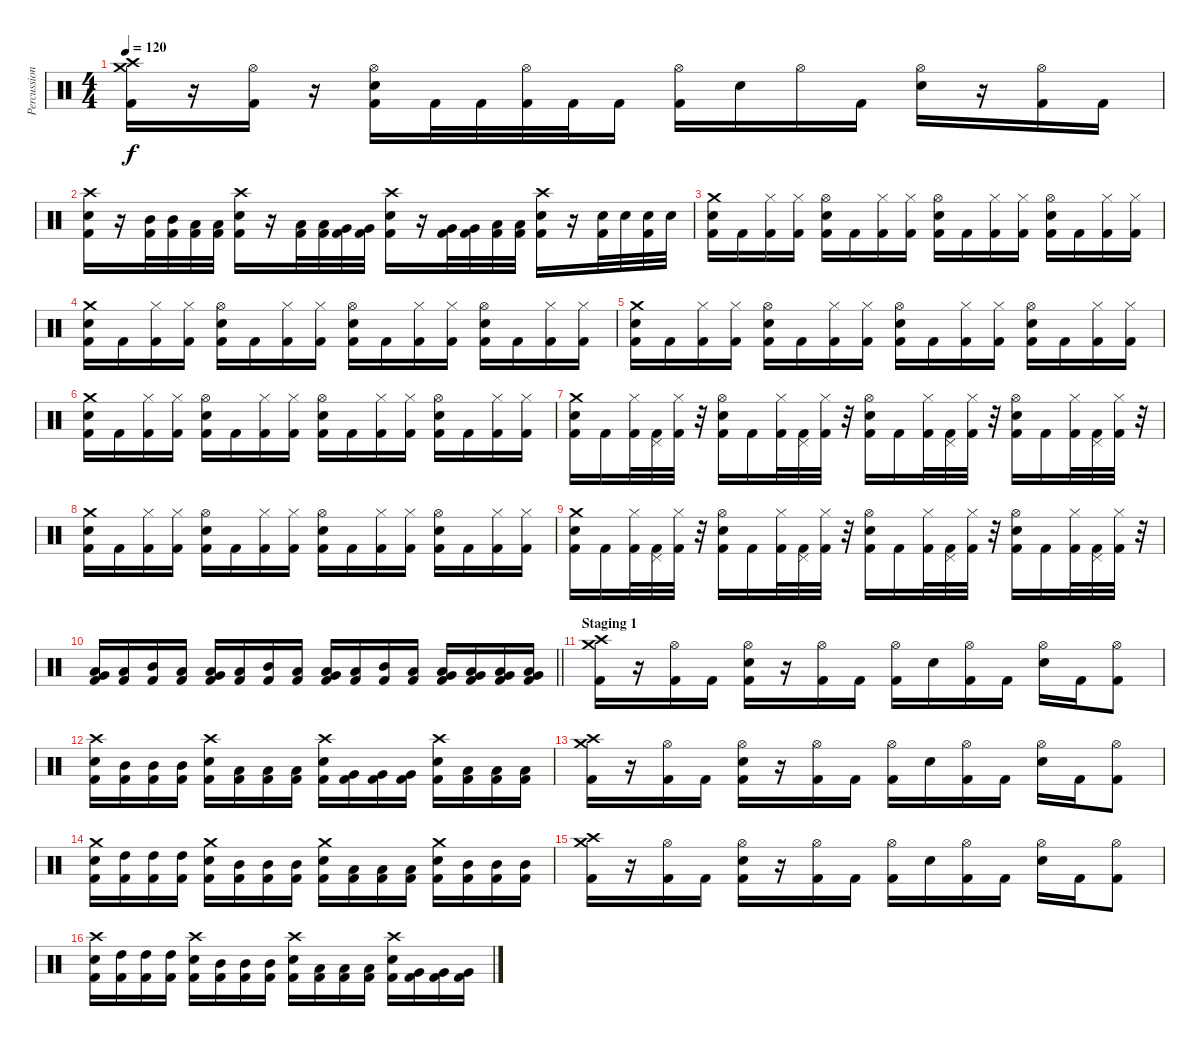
\track ("Percussion" "Percussion") {instrument percussion}
\staff {score}
\articulation defaults
\ts (4 4)
\tempo 120
\clef neutral
\ks c
("Crash medium (hit)" "Crash high (hit)" "Kick (hit) 2").16{dy f} r.16 ("Hi-Hat (open)" "Kick (hit) 2").16 r.16 ("Hi-Hat (open)" "Electric Snare (hit)" "Kick (hit) 2").16 "Kick (hit) 2".32 "Kick (hit) 2".32 ("Hi-Hat (open)" "Kick (hit) 2").32 "Kick (hit) 2".32 "Kick (hit) 2".16 ("Hi-Hat (open)" "Kick (hit) 2").16 "Electric Snare (hit)".16 "Hi-Hat (open)".16 "Kick (hit) 2".16 ("Hi-Hat (open)" "Electric Snare (hit)").16 r.16 ("Hi-Hat (open)" "Kick (hit) 2").16 "Kick (hit) 2".16 |
("Crash high (hit)" "Electric Snare (hit)" "Kick (hit) 2").16 r.16 ("Mid Tom (hit)" "Kick (hit) 2").32 ("Mid Tom (hit)" "Kick (hit) 2").32 ("Low Tom (hit)" "Kick (hit) 2").32 ("Low Tom (hit)" "Kick (hit) 2").32 ("Crash high (hit)" "Electric Snare (hit)" "Kick (hit) 2").16 r.16 ("Low Tom (hit)" "Kick (hit) 2").32 ("Low Tom (hit)" "Kick (hit) 2").32 ("Very Low Tom (hit)" "Kick (hit) 2").32 ("Very Low Tom (hit)" "Kick (hit) 2").32 ("Crash high (hit)" "Electric Snare (hit)" "Kick (hit) 2").16 r.16 ("Very Low Tom (hit)" "Kick (hit) 2").32 ("Very Low Tom (hit)" "Kick (hit) 2").32 ("Low Floor Tom (hit)" "Kick (hit) 2").32 ("Low Floor Tom (hit)" "Kick (hit) 2").32 ("Crash high (hit)" "Electric Snare (hit)" "Kick (hit) 2").16 r.16 ("Electric Snare (hit)" "Kick (hit) 2").32 "Electric Snare (hit)".32 ("Electric Snare (hit)" "Kick (hit) 2").32 "Electric Snare (hit)".32 |
("Crash medium (hit)" "Electric Snare (hit)" "Kick (hit) 2").16 "Kick (hit) 2".16 ("Hi-Hat (closed)" "Kick (hit) 2").16 ("Hi-Hat (closed)" "Kick (hit) 2").16 ("Hi-Hat (open)" "Electric Snare (hit)" "Kick (hit) 2").16 "Kick (hit) 2".16 ("Hi-Hat (closed)" "Kick (hit) 2").16 ("Hi-Hat (closed)" "Kick (hit) 2").16 ("Hi-Hat (open)" "Electric Snare (hit)" "Kick (hit) 2").16 "Kick (hit) 2".16 ("Hi-Hat (closed)" "Kick (hit) 2").16 ("Hi-Hat (closed)" "Kick (hit) 2").16 ("Hi-Hat (open)" "Electric Snare (hit)" "Kick (hit) 2").16 "Kick (hit) 2".16 ("Hi-Hat (closed)" "Kick (hit) 2").16 ("Hi-Hat (closed)" "Kick (hit) 2").16 |
("Crash medium (hit)" "Electric Snare (hit)" "Kick (hit) 2").16 "Kick (hit) 2".16 ("Hi-Hat (closed)" "Kick (hit) 2").16 ("Hi-Hat (closed)" "Kick (hit) 2").16 ("Hi-Hat (open)" "Electric Snare (hit)" "Kick (hit) 2").16 "Kick (hit) 2".16 ("Hi-Hat (closed)" "Kick (hit) 2").16 ("Hi-Hat (closed)" "Kick (hit) 2").16 ("Hi-Hat (open)" "Electric Snare (hit)" "Kick (hit) 2").16 "Kick (hit) 2".16 ("Hi-Hat (closed)" "Kick (hit) 2").16 ("Hi-Hat (closed)" "Kick (hit) 2").16 ("Hi-Hat (open)" "Electric Snare (hit)" "Kick (hit) 2").16 "Kick (hit) 2".16 ("Hi-Hat (closed)" "Kick (hit) 2").16 ("Hi-Hat (closed)" "Kick (hit) 2").16 |
("Crash medium (hit)" "Electric Snare (hit)" "Kick (hit) 2").16 "Kick (hit) 2".16 ("Hi-Hat (closed)" "Kick (hit) 2").16 ("Hi-Hat (closed)" "Kick (hit) 2").16 ("Hi-Hat (open)" "Electric Snare (hit)" "Kick (hit) 2").16 "Kick (hit) 2".16 ("Hi-Hat (closed)" "Kick (hit) 2").16 ("Hi-Hat (closed)" "Kick (hit) 2").16 ("Hi-Hat (open)" "Electric Snare (hit)" "Kick (hit) 2").16 "Kick (hit) 2".16 ("Hi-Hat (closed)" "Kick (hit) 2").16 ("Hi-Hat (closed)" "Kick (hit) 2").16 ("Hi-Hat (open)" "Electric Snare (hit)" "Kick (hit) 2").16 "Kick (hit) 2".16 ("Hi-Hat (closed)" "Kick (hit) 2").16 ("Hi-Hat (closed)" "Kick (hit) 2").16 |
("Crash medium (hit)" "Electric Snare (hit)" "Kick (hit) 2").16 "Kick (hit) 2".16 ("Hi-Hat (closed)" "Kick (hit) 2").16 ("Hi-Hat (closed)" "Kick (hit) 2").16 ("Hi-Hat (open)" "Electric Snare (hit)" "Kick (hit) 2").16 "Kick (hit) 2".16 ("Hi-Hat (closed)" "Kick (hit) 2").16 ("Hi-Hat (closed)" "Kick (hit) 2").16 ("Hi-Hat (open)" "Electric Snare (hit)" "Kick (hit) 2").16 "Kick (hit) 2".16 ("Hi-Hat (closed)" "Kick (hit) 2").16 ("Hi-Hat (closed)" "Kick (hit) 2").16 ("Hi-Hat (open)" "Electric Snare (hit)" "Kick (hit) 2").16 "Kick (hit) 2".16 ("Hi-Hat (closed)" "Kick (hit) 2").16 ("Hi-Hat (closed)" "Kick (hit) 2").16 |
("Crash medium (hit)" "Electric Snare (hit)" "Kick (hit) 2").16 "Kick (hit) 2".16 ("Hi-Hat (closed)" "Kick (hit) 2").32 ("Pedal Hi-Hat (hit)" "Kick (hit) 2").32 ("Hi-Hat (closed)" "Kick (hit) 2").32 r.32 ("Hi-Hat (open)" "Electric Snare (hit)" "Kick (hit) 2").16 "Kick (hit) 2".16 ("Hi-Hat (closed)" "Kick (hit) 2").32 ("Pedal Hi-Hat (hit)" "Kick (hit) 2").32 ("Hi-Hat (closed)" "Kick (hit) 2").32 r.32 ("Hi-Hat (open)" "Electric Snare (hit)" "Kick (hit) 2").16 "Kick (hit) 2".16 ("Hi-Hat (closed)" "Kick (hit) 2").32 ("Pedal Hi-Hat (hit)" "Kick (hit) 2").32 ("Hi-Hat (closed)" "Kick (hit) 2").32 r.32 ("Hi-Hat (open)" "Electric Snare (hit)" "Kick (hit) 2").16 "Kick (hit) 2".16 ("Hi-Hat (closed)" "Kick (hit) 2").32 ("Pedal Hi-Hat (hit)" "Kick (hit) 2").32 ("Hi-Hat (closed)" "Kick (hit) 2").32 r.32 |
("Crash medium (hit)" "Electric Snare (hit)" "Kick (hit) 2").16 "Kick (hit) 2".16 ("Hi-Hat (closed)" "Kick (hit) 2").16 ("Hi-Hat (closed)" "Kick (hit) 2").16 ("Hi-Hat (open)" "Electric Snare (hit)" "Kick (hit) 2").16 "Kick (hit) 2".16 ("Hi-Hat (closed)" "Kick (hit) 2").16 ("Hi-Hat (closed)" "Kick (hit) 2").16 ("Hi-Hat (open)" "Electric Snare (hit)" "Kick (hit) 2").16 "Kick (hit) 2".16 ("Hi-Hat (closed)" "Kick (hit) 2").16 ("Hi-Hat (closed)" "Kick (hit) 2").16 ("Hi-Hat (open)" "Electric Snare (hit)" "Kick (hit) 2").16 "Kick (hit) 2".16 ("Hi-Hat (closed)" "Kick (hit) 2").16 ("Hi-Hat (closed)" "Kick (hit) 2").16 |
("Crash medium (hit)" "Electric Snare (hit)" "Kick (hit) 2").16 "Kick (hit) 2".16 ("Hi-Hat (closed)" "Kick (hit) 2").32 ("Pedal Hi-Hat (hit)" "Kick (hit) 2").32 ("Hi-Hat (closed)" "Kick (hit) 2").32 r.32 ("Hi-Hat (open)" "Electric Snare (hit)" "Kick (hit) 2").16 "Kick (hit) 2".16 ("Hi-Hat (closed)" "Kick (hit) 2").32 ("Pedal Hi-Hat (hit)" "Kick (hit) 2").32 ("Hi-Hat (closed)" "Kick (hit) 2").32 r.32 ("Hi-Hat (open)" "Electric Snare (hit)" "Kick (hit) 2").16 "Kick (hit) 2".16 ("Hi-Hat (closed)" "Kick (hit) 2").32 ("Pedal Hi-Hat (hit)" "Kick (hit) 2").32 ("Hi-Hat (closed)" "Kick (hit) 2").32 r.32 ("Hi-Hat (open)" "Electric Snare (hit)" "Kick (hit) 2").16 "Kick (hit) 2".16 ("Hi-Hat (closed)" "Kick (hit) 2").32 ("Pedal Hi-Hat (hit)" "Kick (hit) 2").32 ("Hi-Hat (closed)" "Kick (hit) 2").32 r.32 |
\barLineRight lightlight
("Very Low Tom (hit)" "Low Floor Tom (hit)" "Kick (hit) 2").16 ("Low Tom (hit)" "Kick (hit) 2").16 ("Mid Tom (hit)" "Kick (hit) 2").16 ("Low Tom (hit)" "Kick (hit) 2").16 ("Very Low Tom (hit)" "Low Floor Tom (hit)" "Kick (hit) 2").16 ("Low Tom (hit)" "Kick (hit) 2").16 ("Mid Tom (hit)" "Kick (hit) 2").16 ("Low Tom (hit)" "Kick (hit) 2").16 ("Very Low Tom (hit)" "Low Floor Tom (hit)" "Kick (hit) 2").16 ("Low Tom (hit)" "Kick (hit) 2").16 ("Mid Tom (hit)" "Kick (hit) 2").16 ("Low Tom (hit)" "Kick (hit) 2").16 ("Very Low Tom (hit)" "Low Floor Tom (hit)" "Kick (hit) 2").16 ("Very Low Tom (hit)" "Low Floor Tom (hit)" "Kick (hit) 2").16 ("Very Low Tom (hit)" "Low Floor Tom (hit)" "Kick (hit) 2").16 ("Very Low Tom (hit)" "Low Floor Tom (hit)" "Kick (hit) 2").16 |
\section ("" "Staging 1")
("Crash high (hit)" "Crash medium (hit)" "Kick (hit) 2").16 r.16 ("Hi-Hat (open)" "Kick (hit) 2").16 "Kick (hit) 2".16 ("Hi-Hat (open)" "Electric Snare (hit)" "Kick (hit) 2").16 r.16 ("Hi-Hat (open)" "Kick (hit) 2").16 "Kick (hit) 2".16 ("Hi-Hat (open)" "Kick (hit) 2").16 "Electric Snare (hit)".16 ("Hi-Hat (open)" "Kick (hit) 2").16 "Kick (hit) 2".16 ("Hi-Hat (open)" "Electric Snare (hit)").16 "Kick (hit) 2".16 ("Hi-Hat (open)" "Kick (hit) 2").8 |
("Crash high (hit)" "Electric Snare (hit)" "Kick (hit) 2").16 ("Mid Tom (hit)" "Kick (hit) 2").16 ("Mid Tom (hit)" "Kick (hit) 2").16 ("Mid Tom (hit)" "Kick (hit) 2").16 ("Crash high (hit)" "Electric Snare (hit)" "Kick (hit) 2").16 ("Low Tom (hit)" "Kick (hit) 2").16 ("Low Tom (hit)" "Kick (hit) 2").16 ("Low Tom (hit)" "Kick (hit) 2").16 ("Crash high (hit)" "Electric Snare (hit)" "Kick (hit) 2").16 ("Very Low Tom (hit)" "Kick (hit) 2").16 ("Very Low Tom (hit)" "Kick (hit) 2").16 ("Very Low Tom (hit)" "Kick (hit) 2").16 ("Crash high (hit)" "Electric Snare (hit)" "Kick (hit) 2").16 ("Low Tom (hit)" "Kick (hit) 2").16 ("Low Tom (hit)" "Kick (hit) 2").16 ("Low Tom (hit)" "Kick (hit) 2").16 |
("Crash medium (hit)" "Crash high (hit)" "Kick (hit) 2").16 r.16 ("Hi-Hat (open)" "Kick (hit) 2").16 "Kick (hit) 2".16 ("Hi-Hat (open)" "Electric Snare (hit)" "Kick (hit) 2").16 r.16 ("Hi-Hat (open)" "Kick (hit) 2").16 "Kick (hit) 2".16 ("Hi-Hat (open)" "Kick (hit) 2").16 "Electric Snare (hit)".16 ("Hi-Hat (open)" "Kick (hit) 2").16 "Kick (hit) 2".16 ("Hi-Hat (open)" "Electric Snare (hit)").16 "Kick (hit) 2".16 ("Hi-Hat (open)" "Kick (hit) 2").8 |
("Crash medium (hit)" "Electric Snare (hit)" "Kick (hit) 2").16 ("High Tom (hit)" "Kick (hit) 2").16 ("High Tom (hit)" "Kick (hit) 2").16 ("High Tom (hit)" "Kick (hit) 2").16 ("Crash medium (hit)" "Electric Snare (hit)" "Kick (hit) 2").16 ("Mid Tom (hit)" "Kick (hit) 2").16 ("Mid Tom (hit)" "Kick (hit) 2").16 ("Mid Tom (hit)" "Kick (hit) 2").16 ("Crash medium (hit)" "Electric Snare (hit)" "Kick (hit) 2").16 ("Low Tom (hit)" "Kick (hit) 2").16 ("Low Tom (hit)" "Kick (hit) 2").16 ("Low Tom (hit)" "Kick (hit) 2").16 ("Crash medium (hit)" "Electric Snare (hit)" "Kick (hit) 2").16 ("Mid Tom (hit)" "Kick (hit) 2").16 ("Mid Tom (hit)" "Kick (hit) 2").16 ("Mid Tom (hit)" "Kick (hit) 2").16 |
("Crash high (hit)" "Crash medium (hit)" "Kick (hit) 2").16 r.16 ("Hi-Hat (open)" "Kick (hit) 2").16 "Kick (hit) 2".16 ("Hi-Hat (open)" "Electric Snare (hit)" "Kick (hit) 2").16 r.16 ("Hi-Hat (open)" "Kick (hit) 2").16 "Kick (hit) 2".16 ("Hi-Hat (open)" "Kick (hit) 2").16 "Electric Snare (hit)".16 ("Hi-Hat (open)" "Kick (hit) 2").16 "Kick (hit) 2".16 ("Hi-Hat (open)" "Electric Snare (hit)").16 "Kick (hit) 2".16 ("Hi-Hat (open)" "Kick (hit) 2").8 |
("Crash high (hit)" "Electric Snare (hit)" "Kick (hit) 2").16 ("High Tom (hit)" "Kick (hit) 2").16 ("High Tom (hit)" "Kick (hit) 2").16 ("High Tom (hit)" "Kick (hit) 2").16 ("Crash high (hit)" "Electric Snare (hit)" "Kick (hit) 2").16 ("Mid Tom (hit)" "Kick (hit) 2").16 ("Mid Tom (hit)" "Kick (hit) 2").16 ("Mid Tom (hit)" "Kick (hit) 2").16 ("Crash high (hit)" "Electric Snare (hit)" "Kick (hit) 2").16 ("Low Tom (hit)" "Kick (hit) 2").16 ("Low Tom (hit)" "Kick (hit) 2").16 ("Low Tom (hit)" "Kick (hit) 2").16 ("Crash high (hit)" "Electric Snare (hit)" "Kick (hit) 2").16 ("Very Low Tom (hit)" "Kick (hit) 2").16 ("Very Low Tom (hit)" "Kick (hit) 2").16 ("Very Low Tom (hit)" "Kick (hit) 2").16
